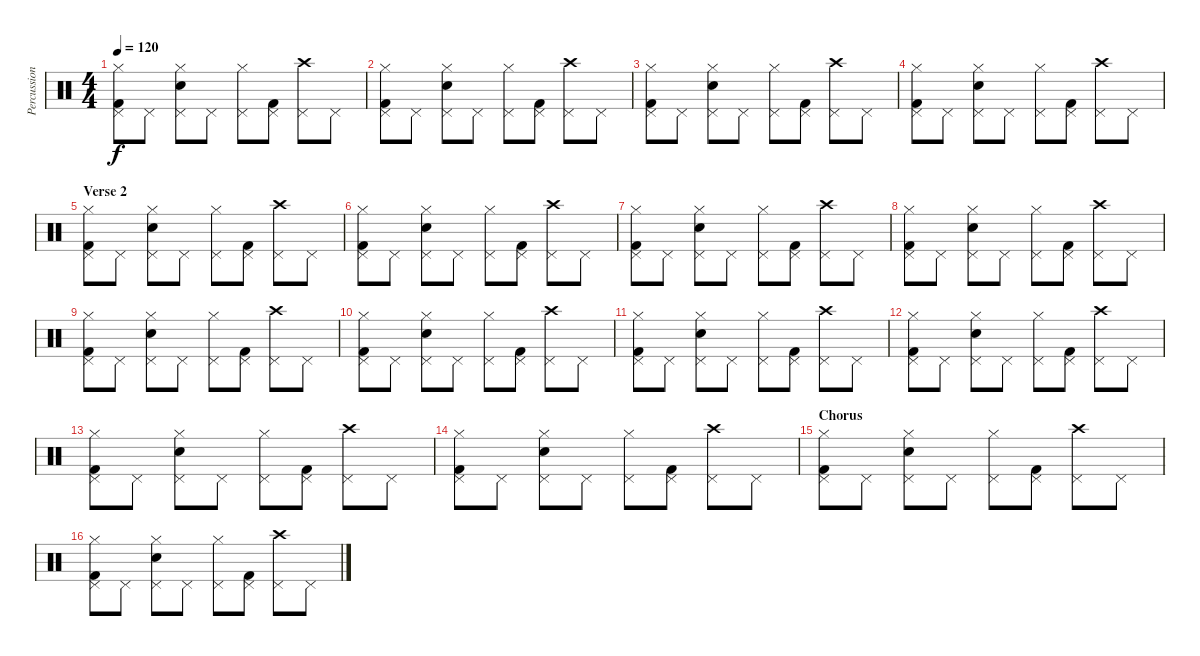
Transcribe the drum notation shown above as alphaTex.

\track ("Percussion" "Percussion") {instrument percussion}
\staff {score}
\articulation defaults
\ts (4 4)
\tempo 120
\clef neutral
\ks c
("Hi-Hat (closed)" "Pedal Hi-Hat (hit)" "Kick (hit) 2").8{dy f} "Pedal Hi-Hat (hit)".8 ("Hi-Hat (closed)" "Pedal Hi-Hat (hit)" "Snare (hit) 2").8 "Pedal Hi-Hat (hit)".8 ("Hi-Hat (closed)" "Pedal Hi-Hat (hit)").8 ("Pedal Hi-Hat (hit)" "Kick (hit) 2").8 ("Crash high (hit)" "Pedal Hi-Hat (hit)").8 "Pedal Hi-Hat (hit)".8 |
("Hi-Hat (closed)" "Pedal Hi-Hat (hit)" "Kick (hit) 2").8 "Pedal Hi-Hat (hit)".8 ("Hi-Hat (closed)" "Pedal Hi-Hat (hit)" "Snare (hit) 2").8 "Pedal Hi-Hat (hit)".8 ("Hi-Hat (closed)" "Pedal Hi-Hat (hit)").8 ("Pedal Hi-Hat (hit)" "Kick (hit) 2").8 ("Crash high (hit)" "Pedal Hi-Hat (hit)").8 "Pedal Hi-Hat (hit)".8 |
("Hi-Hat (closed)" "Pedal Hi-Hat (hit)" "Kick (hit) 2").8 "Pedal Hi-Hat (hit)".8 ("Hi-Hat (closed)" "Pedal Hi-Hat (hit)" "Snare (hit) 2").8 "Pedal Hi-Hat (hit)".8 ("Hi-Hat (closed)" "Pedal Hi-Hat (hit)").8 ("Pedal Hi-Hat (hit)" "Kick (hit) 2").8 ("Crash high (hit)" "Pedal Hi-Hat (hit)").8 "Pedal Hi-Hat (hit)".8 |
("Hi-Hat (closed)" "Pedal Hi-Hat (hit)" "Kick (hit) 2").8 "Pedal Hi-Hat (hit)".8 ("Hi-Hat (closed)" "Pedal Hi-Hat (hit)" "Snare (hit) 2").8 "Pedal Hi-Hat (hit)".8 ("Hi-Hat (closed)" "Pedal Hi-Hat (hit)").8 ("Pedal Hi-Hat (hit)" "Kick (hit) 2").8 ("Crash high (hit)" "Pedal Hi-Hat (hit)").8 "Pedal Hi-Hat (hit)".8 |
\section ("" "Verse 2")
("Hi-Hat (closed)" "Pedal Hi-Hat (hit)" "Kick (hit) 2").8 "Pedal Hi-Hat (hit)".8 ("Hi-Hat (closed)" "Pedal Hi-Hat (hit)" "Snare (hit) 2").8 "Pedal Hi-Hat (hit)".8 ("Hi-Hat (closed)" "Pedal Hi-Hat (hit)").8 ("Pedal Hi-Hat (hit)" "Kick (hit) 2").8 ("Crash high (hit)" "Pedal Hi-Hat (hit)").8 "Pedal Hi-Hat (hit)".8 |
("Hi-Hat (closed)" "Pedal Hi-Hat (hit)" "Kick (hit) 2").8 "Pedal Hi-Hat (hit)".8 ("Hi-Hat (closed)" "Pedal Hi-Hat (hit)" "Snare (hit) 2").8 "Pedal Hi-Hat (hit)".8 ("Hi-Hat (closed)" "Pedal Hi-Hat (hit)").8 ("Pedal Hi-Hat (hit)" "Kick (hit) 2").8 ("Crash high (hit)" "Pedal Hi-Hat (hit)").8 "Pedal Hi-Hat (hit)".8 |
("Hi-Hat (closed)" "Pedal Hi-Hat (hit)" "Kick (hit) 2").8 "Pedal Hi-Hat (hit)".8 ("Hi-Hat (closed)" "Pedal Hi-Hat (hit)" "Snare (hit) 2").8 "Pedal Hi-Hat (hit)".8 ("Hi-Hat (closed)" "Pedal Hi-Hat (hit)").8 ("Pedal Hi-Hat (hit)" "Kick (hit) 2").8 ("Crash high (hit)" "Pedal Hi-Hat (hit)").8 "Pedal Hi-Hat (hit)".8 |
("Hi-Hat (closed)" "Pedal Hi-Hat (hit)" "Kick (hit) 2").8 "Pedal Hi-Hat (hit)".8 ("Hi-Hat (closed)" "Pedal Hi-Hat (hit)" "Snare (hit) 2").8 "Pedal Hi-Hat (hit)".8 ("Hi-Hat (closed)" "Pedal Hi-Hat (hit)").8 ("Pedal Hi-Hat (hit)" "Kick (hit) 2").8 ("Crash high (hit)" "Pedal Hi-Hat (hit)").8 "Pedal Hi-Hat (hit)".8 |
("Hi-Hat (closed)" "Pedal Hi-Hat (hit)" "Kick (hit) 2").8 "Pedal Hi-Hat (hit)".8 ("Hi-Hat (closed)" "Pedal Hi-Hat (hit)" "Snare (hit) 2").8 "Pedal Hi-Hat (hit)".8 ("Hi-Hat (closed)" "Pedal Hi-Hat (hit)").8 ("Pedal Hi-Hat (hit)" "Kick (hit) 2").8 ("Crash high (hit)" "Pedal Hi-Hat (hit)").8 "Pedal Hi-Hat (hit)".8 |
("Hi-Hat (closed)" "Pedal Hi-Hat (hit)" "Kick (hit) 2").8 "Pedal Hi-Hat (hit)".8 ("Hi-Hat (closed)" "Pedal Hi-Hat (hit)" "Snare (hit) 2").8 "Pedal Hi-Hat (hit)".8 ("Hi-Hat (closed)" "Pedal Hi-Hat (hit)").8 ("Pedal Hi-Hat (hit)" "Kick (hit) 2").8 ("Crash high (hit)" "Pedal Hi-Hat (hit)").8 "Pedal Hi-Hat (hit)".8 |
("Hi-Hat (closed)" "Pedal Hi-Hat (hit)" "Kick (hit) 2").8 "Pedal Hi-Hat (hit)".8 ("Hi-Hat (closed)" "Pedal Hi-Hat (hit)" "Snare (hit) 2").8 "Pedal Hi-Hat (hit)".8 ("Hi-Hat (closed)" "Pedal Hi-Hat (hit)").8 ("Pedal Hi-Hat (hit)" "Kick (hit) 2").8 ("Crash high (hit)" "Pedal Hi-Hat (hit)").8 "Pedal Hi-Hat (hit)".8 |
("Hi-Hat (closed)" "Pedal Hi-Hat (hit)" "Kick (hit) 2").8 "Pedal Hi-Hat (hit)".8 ("Hi-Hat (closed)" "Pedal Hi-Hat (hit)" "Snare (hit) 2").8 "Pedal Hi-Hat (hit)".8 ("Hi-Hat (closed)" "Pedal Hi-Hat (hit)").8 ("Pedal Hi-Hat (hit)" "Kick (hit) 2").8 ("Crash high (hit)" "Pedal Hi-Hat (hit)").8 "Pedal Hi-Hat (hit)".8 |
("Hi-Hat (closed)" "Pedal Hi-Hat (hit)" "Kick (hit) 2").8 "Pedal Hi-Hat (hit)".8 ("Hi-Hat (closed)" "Pedal Hi-Hat (hit)" "Snare (hit) 2").8 "Pedal Hi-Hat (hit)".8 ("Hi-Hat (closed)" "Pedal Hi-Hat (hit)").8 ("Pedal Hi-Hat (hit)" "Kick (hit) 2").8 ("Crash high (hit)" "Pedal Hi-Hat (hit)").8 "Pedal Hi-Hat (hit)".8 |
("Hi-Hat (closed)" "Pedal Hi-Hat (hit)" "Kick (hit) 2").8 "Pedal Hi-Hat (hit)".8 ("Hi-Hat (closed)" "Pedal Hi-Hat (hit)" "Snare (hit) 2").8 "Pedal Hi-Hat (hit)".8 ("Hi-Hat (closed)" "Pedal Hi-Hat (hit)").8 ("Pedal Hi-Hat (hit)" "Kick (hit) 2").8 ("Crash high (hit)" "Pedal Hi-Hat (hit)").8 "Pedal Hi-Hat (hit)".8 |
\section ("" "Chorus")
("Hi-Hat (closed)" "Pedal Hi-Hat (hit)" "Kick (hit) 2").8 "Pedal Hi-Hat (hit)".8 ("Hi-Hat (closed)" "Pedal Hi-Hat (hit)" "Snare (hit) 2").8 "Pedal Hi-Hat (hit)".8 ("Hi-Hat (closed)" "Pedal Hi-Hat (hit)").8 ("Pedal Hi-Hat (hit)" "Kick (hit) 2").8 ("Crash high (hit)" "Pedal Hi-Hat (hit)").8 "Pedal Hi-Hat (hit)".8 |
("Hi-Hat (closed)" "Pedal Hi-Hat (hit)" "Kick (hit) 2").8 "Pedal Hi-Hat (hit)".8 ("Hi-Hat (closed)" "Pedal Hi-Hat (hit)" "Snare (hit) 2").8 "Pedal Hi-Hat (hit)".8 ("Hi-Hat (closed)" "Pedal Hi-Hat (hit)").8 ("Pedal Hi-Hat (hit)" "Kick (hit) 2").8 ("Crash high (hit)" "Pedal Hi-Hat (hit)").8 "Pedal Hi-Hat (hit)".8
